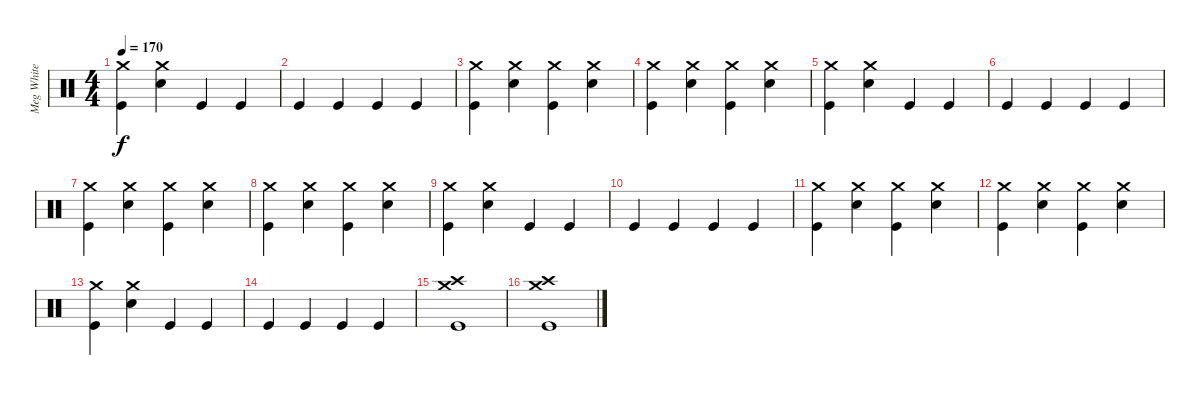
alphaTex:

\track ("Meg White" "Meg White") {instrument percussion}
\staff {score}
\articulation defaults
\ts (4 4)
\tempo 170
\clef neutral
\ks c
("Kick (hit)" "Crash medium (hit)").4{dy f} ("Snare (hit) 2" "Crash medium (hit)").4 "Kick (hit)".4 "Kick (hit)".4 |
"Kick (hit)".4 "Kick (hit)".4 "Kick (hit)".4 "Kick (hit)".4 |
("Kick (hit)" "Crash medium (hit)").4 ("Snare (hit) 2" "Crash medium (hit)").4 ("Kick (hit)" "Crash medium (hit)").4 ("Snare (hit) 2" "Crash medium (hit)").4 |
("Kick (hit)" "Crash medium (hit)").4 ("Snare (hit) 2" "Crash medium (hit)").4 ("Kick (hit)" "Crash medium (hit)").4 ("Snare (hit) 2" "Crash medium (hit)").4 |
("Kick (hit)" "Crash medium (hit)").4 ("Snare (hit) 2" "Crash medium (hit)").4 "Kick (hit)".4 "Kick (hit)".4 |
"Kick (hit)".4 "Kick (hit)".4 "Kick (hit)".4 "Kick (hit)".4 |
("Kick (hit)" "Crash medium (hit)").4 ("Snare (hit) 2" "Crash medium (hit)").4 ("Kick (hit)" "Crash medium (hit)").4 ("Snare (hit) 2" "Crash medium (hit)").4 |
("Kick (hit)" "Crash medium (hit)").4 ("Snare (hit) 2" "Crash medium (hit)").4 ("Kick (hit)" "Crash medium (hit)").4 ("Snare (hit) 2" "Crash medium (hit)").4 |
("Kick (hit)" "Crash medium (hit)").4 ("Snare (hit) 2" "Crash medium (hit)").4 "Kick (hit)".4 "Kick (hit)".4 |
"Kick (hit)".4 "Kick (hit)".4 "Kick (hit)".4 "Kick (hit)".4 |
("Kick (hit)" "Crash medium (hit)").4 ("Snare (hit) 2" "Crash medium (hit)").4 ("Kick (hit)" "Crash medium (hit)").4 ("Snare (hit) 2" "Crash medium (hit)").4 |
("Kick (hit)" "Crash medium (hit)").4 ("Snare (hit) 2" "Crash medium (hit)").4 ("Kick (hit)" "Crash medium (hit)").4 ("Snare (hit) 2" "Crash medium (hit)").4 |
("Kick (hit)" "Crash medium (hit)").4 ("Snare (hit) 2" "Crash medium (hit)").4 "Kick (hit)".4 "Kick (hit)".4 |
"Kick (hit)".4 "Kick (hit)".4 "Kick (hit)".4 "Kick (hit)".4 |
("Kick (hit)" "Crash high (hit)" "Crash medium (hit)").1 |
("Kick (hit)" "Crash high (hit)" "Crash medium (hit)").1
